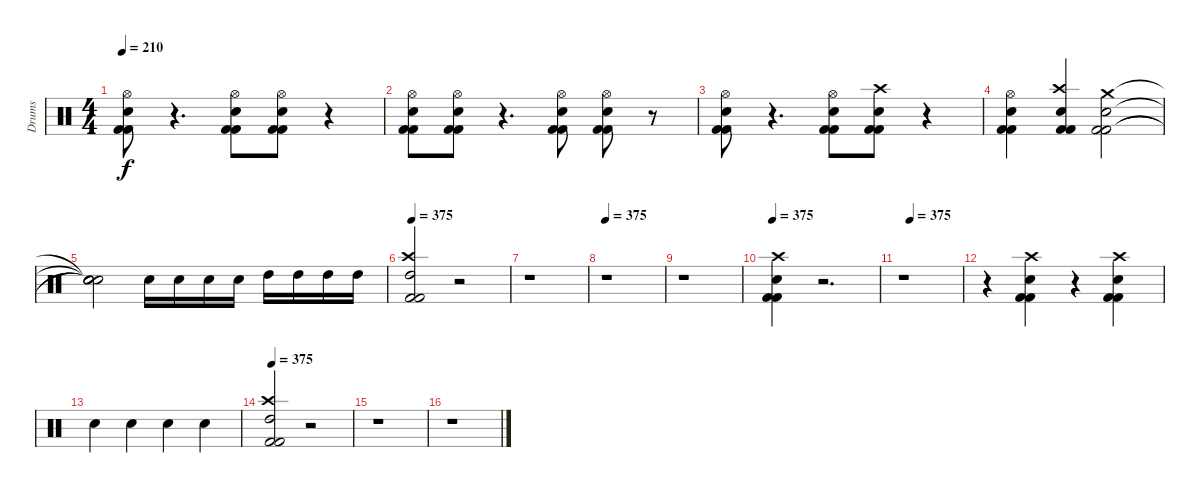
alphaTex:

\track ("Drums" "Drums") {instrument percussion}
\staff {score}
\articulation defaults
\ts (4 4)
\tempo 210
\clef neutral
\ks c
("Hi-Hat (open)" "Snare (hit) 2" "Kick (hit) 2" "Kick (hit) 2").8{dy f} r.4{d} ("Hi-Hat (open)" "Snare (hit) 2" "Kick (hit) 2" "Kick (hit) 2").8 ("Hi-Hat (open)" "Snare (hit) 2" "Kick (hit) 2" "Kick (hit) 2").8 r.4 |
("Hi-Hat (open)" "Snare (hit) 2" "Kick (hit) 2" "Kick (hit) 2").8 ("Hi-Hat (open)" "Snare (hit) 2" "Kick (hit) 2" "Kick (hit) 2").8 r.4{d} ("Hi-Hat (open)" "Snare (hit) 2" "Kick (hit) 2" "Kick (hit) 2").8 ("Hi-Hat (open)" "Snare (hit) 2" "Kick (hit) 2" "Kick (hit) 2").8 r.8 |
("Hi-Hat (open)" "Snare (hit) 2" "Kick (hit) 2" "Kick (hit) 2").8 r.4{d} ("Hi-Hat (open)" "Snare (hit) 2" "Kick (hit) 2" "Kick (hit) 2").8 ("Crash high (hit)" "Electric Snare (hit)" "Kick (hit) 2" "Kick (hit) 2").8 r.4 |
("Hi-Hat (open)" "Snare (hit) 2" "Kick (hit) 2" "Kick (hit) 2").4 ("Crash high (hit)" "Electric Snare (hit)" "Kick (hit) 2" "Kick (hit) 2").4 ("Crash medium (hit)" "Snare (hit) 2" "Kick (hit) 2" "Kick (hit) 2").2 |
("Snare (hit)"{t} "Snare (hit)"{t} "Snare (hit)"{t} "Snare (hit)"{t}).2 "Snare (hit) 2".16 "Snare (hit) 2".16 "Snare (hit) 2".16 "Snare (hit) 2".16 "High Tom (hit)".16 "High Tom (hit)".16 "High Tom (hit)".16 "High Tom (hit)".16 |
\tempo 375
("Crash high (hit)" "High Tom (hit)" "Kick (hit) 2" "Kick (hit) 2").2 r.2 |
r.1 |
\tempo 375
r.1 |
r.1 |
\tempo 375
("Crash high (hit)" "Snare (hit) 2" "Kick (hit) 2" "Kick (hit) 2").4 r.2{d} |
\tempo (375 0.125)
r.1 |
r.4 ("Crash high (hit)" "Snare (hit) 2" "Kick (hit) 2" "Kick (hit) 2").4 r.4 ("Crash high (hit)" "Snare (hit) 2" "Kick (hit) 2" "Kick (hit) 2").4 |
"Electric Snare (hit)".4 "Snare (hit) 2".4 "Snare (hit) 2".4 "Snare (hit) 2".4 |
\tempo 375
("Crash high (hit)" "High Tom (hit)" "Kick (hit) 2" "Kick (hit) 2").2 r.2 |
r.1 |
r.1
